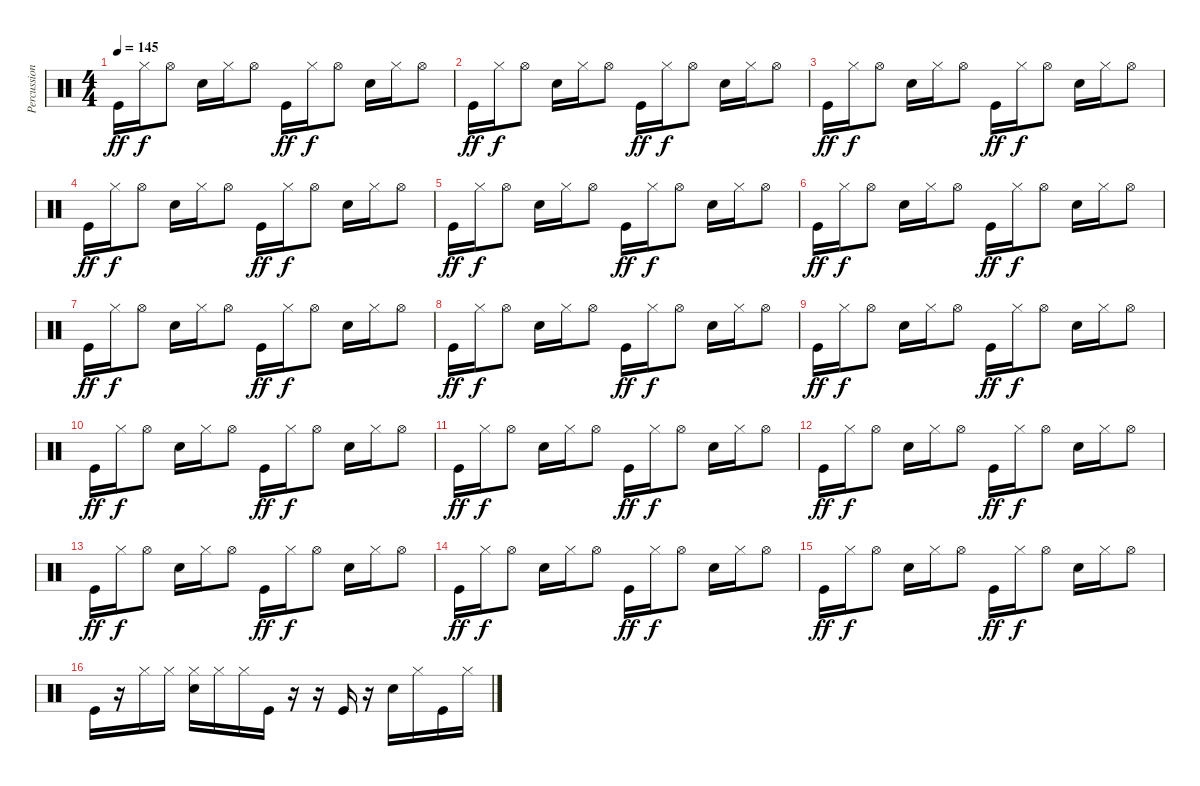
\track ("Percussion" "Percussion") {instrument percussion}
\staff {score}
\articulation defaults
\ts (4 4)
\tempo 145
\clef neutral
\ks c "Kick (hit)".16{dy ff} "Hi-Hat (closed)".16{dy f} "Hi-Hat (open)".8 "Electric Snare (hit)".16 "Hi-Hat (closed)".16 "Hi-Hat (open)".8 "Kick (hit)".16{dy ff} "Hi-Hat (closed)".16{dy f} "Hi-Hat (open)".8 "Electric Snare (hit)".16 "Hi-Hat (closed)".16 "Hi-Hat (open)".8
|
"Kick (hit)".16{dy ff} "Hi-Hat (closed)".16{dy f} "Hi-Hat (open)".8 "Electric Snare (hit)".16 "Hi-Hat (closed)".16 "Hi-Hat (open)".8 "Kick (hit)".16{dy ff} "Hi-Hat (closed)".16{dy f} "Hi-Hat (open)".8 "Electric Snare (hit)".16 "Hi-Hat (closed)".16 "Hi-Hat (open)".8 |
"Kick (hit)".16{dy ff} "Hi-Hat (closed)".16{dy f} "Hi-Hat (open)".8 "Electric Snare (hit)".16 "Hi-Hat (closed)".16 "Hi-Hat (open)".8 "Kick (hit)".16{dy ff} "Hi-Hat (closed)".16{dy f} "Hi-Hat (open)".8 "Electric Snare (hit)".16 "Hi-Hat (closed)".16 "Hi-Hat (open)".8 |
"Kick (hit)".16{dy ff} "Hi-Hat (closed)".16{dy f} "Hi-Hat (open)".8 "Electric Snare (hit)".16 "Hi-Hat (closed)".16 "Hi-Hat (open)".8 "Kick (hit)".16{dy ff} "Hi-Hat (closed)".16{dy f} "Hi-Hat (open)".8 "Electric Snare (hit)".16 "Hi-Hat (closed)".16 "Hi-Hat (open)".8 |
"Kick (hit)".16{dy ff} "Hi-Hat (closed)".16{dy f} "Hi-Hat (open)".8 "Electric Snare (hit)".16 "Hi-Hat (closed)".16 "Hi-Hat (open)".8 "Kick (hit)".16{dy ff} "Hi-Hat (closed)".16{dy f} "Hi-Hat (open)".8 "Electric Snare (hit)".16 "Hi-Hat (closed)".16 "Hi-Hat (open)".8 |
"Kick (hit)".16{dy ff} "Hi-Hat (closed)".16{dy f} "Hi-Hat (open)".8 "Electric Snare (hit)".16 "Hi-Hat (closed)".16 "Hi-Hat (open)".8 "Kick (hit)".16{dy ff} "Hi-Hat (closed)".16{dy f} "Hi-Hat (open)".8 "Electric Snare (hit)".16 "Hi-Hat (closed)".16 "Hi-Hat (open)".8 |
"Kick (hit)".16{dy ff} "Hi-Hat (closed)".16{dy f} "Hi-Hat (open)".8 "Electric Snare (hit)".16 "Hi-Hat (closed)".16 "Hi-Hat (open)".8 "Kick (hit)".16{dy ff} "Hi-Hat (closed)".16{dy f} "Hi-Hat (open)".8 "Electric Snare (hit)".16 "Hi-Hat (closed)".16 "Hi-Hat (open)".8 |
"Kick (hit)".16{dy ff} "Hi-Hat (closed)".16{dy f} "Hi-Hat (open)".8 "Electric Snare (hit)".16 "Hi-Hat (closed)".16 "Hi-Hat (open)".8 "Kick (hit)".16{dy ff} "Hi-Hat (closed)".16{dy f} "Hi-Hat (open)".8 "Electric Snare (hit)".16 "Hi-Hat (closed)".16 "Hi-Hat (open)".8 |
"Kick (hit)".16{dy ff} "Hi-Hat (closed)".16{dy f} "Hi-Hat (open)".8 "Electric Snare (hit)".16 "Hi-Hat (closed)".16 "Hi-Hat (open)".8 "Kick (hit)".16{dy ff} "Hi-Hat (closed)".16{dy f} "Hi-Hat (open)".8 "Electric Snare (hit)".16 "Hi-Hat (closed)".16 "Hi-Hat (open)".8 |
"Kick (hit)".16{dy ff} "Hi-Hat (closed)".16{dy f} "Hi-Hat (open)".8 "Electric Snare (hit)".16 "Hi-Hat (closed)".16 "Hi-Hat (open)".8 "Kick (hit)".16{dy ff} "Hi-Hat (closed)".16{dy f} "Hi-Hat (open)".8 "Electric Snare (hit)".16 "Hi-Hat (closed)".16 "Hi-Hat (open)".8 |
"Kick (hit)".16{dy ff} "Hi-Hat (closed)".16{dy f} "Hi-Hat (open)".8 "Electric Snare (hit)".16 "Hi-Hat (closed)".16 "Hi-Hat (open)".8 "Kick (hit)".16{dy ff} "Hi-Hat (closed)".16{dy f} "Hi-Hat (open)".8 "Electric Snare (hit)".16 "Hi-Hat (closed)".16 "Hi-Hat (open)".8 |
"Kick (hit)".16{dy ff} "Hi-Hat (closed)".16{dy f} "Hi-Hat (open)".8 "Electric Snare (hit)".16 "Hi-Hat (closed)".16 "Hi-Hat (open)".8 "Kick (hit)".16{dy ff} "Hi-Hat (closed)".16{dy f} "Hi-Hat (open)".8 "Electric Snare (hit)".16 "Hi-Hat (closed)".16 "Hi-Hat (open)".8 |
"Kick (hit)".16{dy ff} "Hi-Hat (closed)".16{dy f} "Hi-Hat (open)".8 "Electric Snare (hit)".16 "Hi-Hat (closed)".16 "Hi-Hat (open)".8 "Kick (hit)".16{dy ff} "Hi-Hat (closed)".16{dy f} "Hi-Hat (open)".8 "Electric Snare (hit)".16 "Hi-Hat (closed)".16 "Hi-Hat (open)".8 |
"Kick (hit)".16{dy ff} "Hi-Hat (closed)".16{dy f} "Hi-Hat (open)".8 "Electric Snare (hit)".16 "Hi-Hat (closed)".16 "Hi-Hat (open)".8 "Kick (hit)".16{dy ff} "Hi-Hat (closed)".16{dy f} "Hi-Hat (open)".8 "Electric Snare (hit)".16 "Hi-Hat (closed)".16 "Hi-Hat (open)".8 |
"Kick (hit)".16{dy ff} "Hi-Hat (closed)".16{dy f} "Hi-Hat (open)".8 "Electric Snare (hit)".16 "Hi-Hat (closed)".16 "Hi-Hat (open)".8 "Kick (hit)".16{dy ff} "Hi-Hat (closed)".16{dy f} "Hi-Hat (open)".8 "Electric Snare (hit)".16 "Hi-Hat (closed)".16 "Hi-Hat (open)".8 |
"Kick (hit)".16 r.16 "Hi-Hat (closed)".16 "Hi-Hat (closed)".16 ("Hi-Hat (closed)" "Snare (hit) 2").16 "Hi-Hat (closed)".16 "Hi-Hat (closed)".16 "Kick (hit)".16 r.16 r.16 "Kick (hit)".16 r.16 "Snare (hit) 2".16 "Hi-Hat (closed)".16 "Kick (hit)".16 "Hi-Hat (closed)".16
